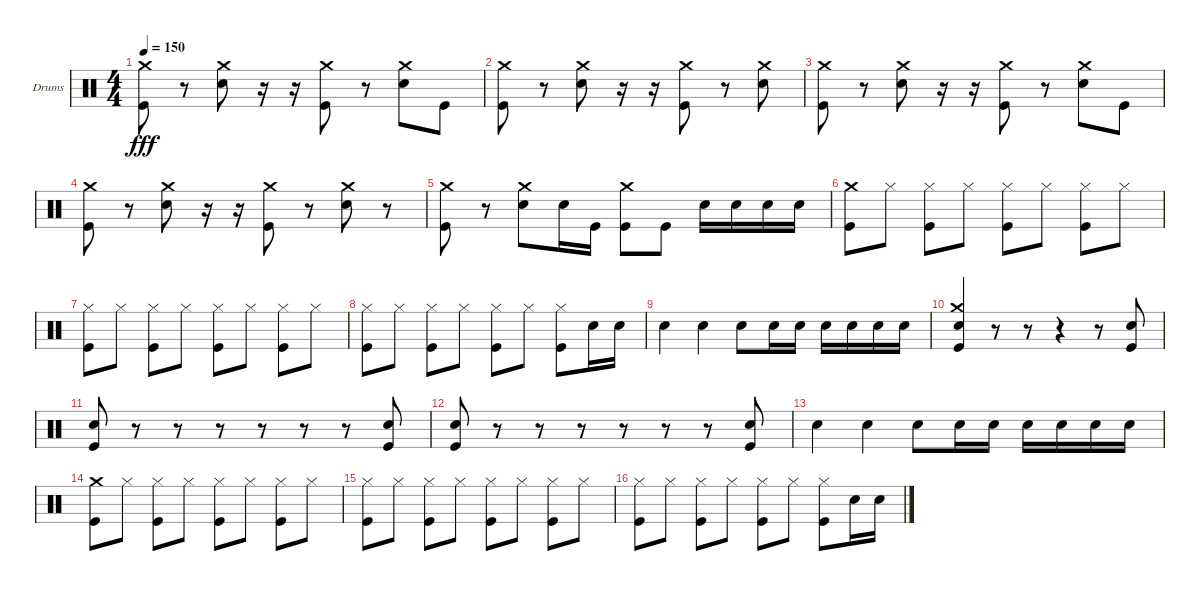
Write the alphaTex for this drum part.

\bracketExtendMode groupsimilarinstruments
\firstSystemTrackNameOrientation horizontal
\otherSystemsTrackNameOrientation horizontal
\track ("Jamie" "Drums") {instrument percussion}
\staff {score}
\articulation defaults
\ts (4 4)
\tempo 150
\clef neutral
\ks c
("Kick (hit)" "Crash medium (hit)").8{dy fff} r.8 ("Snare (hit) 2" "Crash medium (hit)").8 r.16 r.16 ("Kick (hit)" "Crash medium (hit)").8 r.8 ("Snare (hit) 2" "Crash medium (hit)").8 "Kick (hit)".8 |
("Kick (hit)" "Crash medium (hit)").8 r.8 ("Snare (hit) 2" "Crash medium (hit)").8 r.16 r.16 ("Kick (hit)" "Crash medium (hit)").8 r.8 ("Snare (hit) 2" "Crash medium (hit)").8 |
("Kick (hit)" "Crash medium (hit)").8 r.8 ("Snare (hit) 2" "Crash medium (hit)").8 r.16 r.16 ("Kick (hit)" "Crash medium (hit)").8 r.8 ("Snare (hit) 2" "Crash medium (hit)").8 "Kick (hit)".8 |
("Kick (hit)" "Crash medium (hit)").8 r.8 ("Snare (hit) 2" "Crash medium (hit)").8 r.16 r.16 ("Kick (hit)" "Crash medium (hit)").8 r.8 ("Snare (hit) 2" "Crash medium (hit)").8 r.8 |
("Kick (hit)" "Crash medium (hit)").8 r.8 ("Snare (hit) 2" "Crash medium (hit)").8 "Snare (hit) 2".16 "Kick (hit)".16 ("Kick (hit)" "Crash medium (hit)").8 "Kick (hit)".8 "Snare (hit) 2".16 "Snare (hit) 2".16 "Snare (hit) 2".16 "Snare (hit) 2".16 |
("Kick (hit)" "Crash medium (hit)").8 "Hi-Hat (closed)".8 ("Kick (hit)" "Hi-Hat (closed)").8 "Hi-Hat (closed)".8 ("Kick (hit)" "Hi-Hat (closed)").8 "Hi-Hat (closed)".8 ("Kick (hit)" "Hi-Hat (closed)").8 "Hi-Hat (closed)".8 |
("Kick (hit)" "Hi-Hat (closed)").8 "Hi-Hat (closed)".8 ("Kick (hit)" "Hi-Hat (closed)").8 "Hi-Hat (closed)".8 ("Kick (hit)" "Hi-Hat (closed)").8 "Hi-Hat (closed)".8 ("Kick (hit)" "Hi-Hat (closed)").8 "Hi-Hat (closed)".8 |
("Kick (hit)" "Hi-Hat (closed)").8 "Hi-Hat (closed)".8 ("Kick (hit)" "Hi-Hat (closed)").8 "Hi-Hat (closed)".8 ("Kick (hit)" "Hi-Hat (closed)").8 "Hi-Hat (closed)".8 ("Kick (hit)" "Hi-Hat (closed)").8 "Snare (hit) 2".16 "Snare (hit) 2".16 |
"Snare (hit) 2".4 "Snare (hit) 2".4 "Snare (hit) 2".8 "Snare (hit) 2".16 "Snare (hit) 2".16 "Snare (hit) 2".16 "Snare (hit) 2".16 "Snare (hit) 2".16 "Snare (hit) 2".16 |
("Kick (hit)" "Snare (hit) 2" "Crash medium (hit)").4 r.8 r.8 r.4 r.8 ("Kick (hit)" "Snare (hit) 2").8 |
("Kick (hit)" "Snare (hit) 2").8 r.8 r.8 r.8 r.8 r.8 r.8 ("Kick (hit)" "Snare (hit) 2").8 |
("Kick (hit)" "Snare (hit) 2").8 r.8 r.8 r.8 r.8 r.8 r.8 ("Kick (hit)" "Snare (hit) 2").8 |
"Snare (hit) 2".4 "Snare (hit) 2".4 "Snare (hit) 2".8 "Snare (hit) 2".16 "Snare (hit) 2".16 "Snare (hit) 2".16 "Snare (hit) 2".16 "Snare (hit) 2".16 "Snare (hit) 2".16 |
("Kick (hit)" "Crash medium (hit)").8 "Hi-Hat (closed)".8 ("Kick (hit)" "Hi-Hat (closed)").8 "Hi-Hat (closed)".8 ("Kick (hit)" "Hi-Hat (closed)").8 "Hi-Hat (closed)".8 ("Kick (hit)" "Hi-Hat (closed)").8 "Hi-Hat (closed)".8 |
("Kick (hit)" "Hi-Hat (closed)").8 "Hi-Hat (closed)".8 ("Kick (hit)" "Hi-Hat (closed)").8 "Hi-Hat (closed)".8 ("Kick (hit)" "Hi-Hat (closed)").8 "Hi-Hat (closed)".8 ("Kick (hit)" "Hi-Hat (closed)").8 "Hi-Hat (closed)".8 |
("Kick (hit)" "Hi-Hat (closed)").8 "Hi-Hat (closed)".8 ("Kick (hit)" "Hi-Hat (closed)").8 "Hi-Hat (closed)".8 ("Kick (hit)" "Hi-Hat (closed)").8 "Hi-Hat (closed)".8 ("Kick (hit)" "Hi-Hat (closed)").8 "Snare (hit) 2".16 "Snare (hit) 2".16
